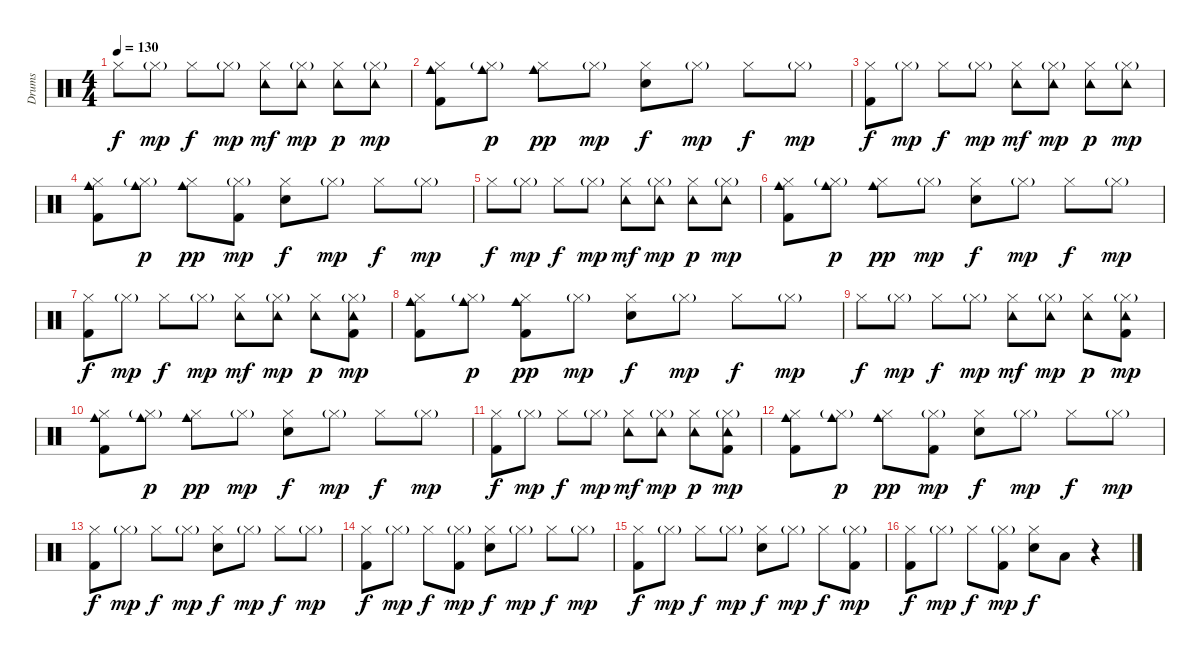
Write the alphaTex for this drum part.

\track ("Drums" "Drums") {instrument percussion}
\staff {score}
\articulation defaults
\ts (4 4)
\tempo 130
\clef neutral
\ks c "Hi-Hat (closed)".8{dy f} "Hi-Hat (closed)"{g}.8{dy mp} "Hi-Hat (closed)".8{dy f} "Hi-Hat (closed)"{g}.8{dy mp}
("Tambourine (hit)" "Hi-Hat (closed)").8{dy mf} ("Tambourine (hit)" "Hi-Hat (closed)"{g}).8{dy mp} ("Tambourine (hit)" "Hi-Hat (closed)").8{dy p} ("Tambourine (hit)" "Hi-Hat (closed)"{g}).8{dy mp} |
("Hi-Hat (closed)" "Cowbell medium (hit)" "Kick (hit) 2").8 ("Hi-Hat (closed)"{g} "Cowbell medium (hit)").8{dy p} ("Hi-Hat (closed)" "Cowbell medium (hit)").8{dy pp} "Hi-Hat (closed)"{g}.8{dy mp} ("Hi-Hat (closed)" "Snare (hit) 2").8{dy f} "Hi-Hat (closed)"{g}.8{dy mp} "Hi-Hat (closed)".8{dy f} "Hi-Hat (closed)"{g}.8{dy mp} |
("Hi-Hat (closed)" "Kick (hit) 2").8{dy f} "Hi-Hat (closed)"{g}.8{dy mp} "Hi-Hat (closed)".8{dy f} "Hi-Hat (closed)"{g}.8{dy mp} ("Tambourine (hit)" "Hi-Hat (closed)").8{dy mf} ("Tambourine (hit)" "Hi-Hat (closed)"{g}).8{dy mp} ("Tambourine (hit)" "Hi-Hat (closed)").8{dy p} ("Tambourine (hit)" "Hi-Hat (closed)"{g}).8{dy mp} |
("Hi-Hat (closed)" "Cowbell medium (hit)" "Kick (hit) 2").8 ("Hi-Hat (closed)"{g} "Cowbell medium (hit)").8{dy p} ("Hi-Hat (closed)" "Cowbell medium (hit)").8{dy pp} ("Hi-Hat (closed)"{g} "Kick (hit) 2").8{dy mp} ("Hi-Hat (closed)" "Snare (hit) 2").8{dy f} "Hi-Hat (closed)"{g}.8{dy mp} "Hi-Hat (closed)".8{dy f} "Hi-Hat (closed)"{g}.8{dy mp} |
"Hi-Hat (closed)".8{dy f} "Hi-Hat (closed)"{g}.8{dy mp} "Hi-Hat (closed)".8{dy f} "Hi-Hat (closed)"{g}.8{dy mp} ("Tambourine (hit)" "Hi-Hat (closed)").8{dy mf} ("Tambourine (hit)" "Hi-Hat (closed)"{g}).8{dy mp} ("Tambourine (hit)" "Hi-Hat (closed)").8{dy p} ("Tambourine (hit)" "Hi-Hat (closed)"{g}).8{dy mp} |
("Hi-Hat (closed)" "Cowbell medium (hit)" "Kick (hit) 2").8 ("Hi-Hat (closed)"{g} "Cowbell medium (hit)").8{dy p} ("Hi-Hat (closed)" "Cowbell medium (hit)").8{dy pp} "Hi-Hat (closed)"{g}.8{dy mp} ("Hi-Hat (closed)" "Snare (hit) 2").8{dy f} "Hi-Hat (closed)"{g}.8{dy mp} "Hi-Hat (closed)".8{dy f} "Hi-Hat (closed)"{g}.8{dy mp} |
("Hi-Hat (closed)" "Kick (hit) 2").8{dy f} "Hi-Hat (closed)"{g}.8{dy mp} "Hi-Hat (closed)".8{dy f} "Hi-Hat (closed)"{g}.8{dy mp} ("Tambourine (hit)" "Hi-Hat (closed)").8{dy mf} ("Tambourine (hit)" "Hi-Hat (closed)"{g}).8{dy mp} ("Tambourine (hit)" "Hi-Hat (closed)").8{dy p} ("Tambourine (hit)" "Hi-Hat (closed)"{g} "Kick (hit) 2").8{dy mp} |
("Hi-Hat (closed)" "Cowbell medium (hit)" "Kick (hit) 2").8 ("Hi-Hat (closed)"{g} "Cowbell medium (hit)").8{dy p} ("Hi-Hat (closed)" "Cowbell medium (hit)" "Kick (hit) 2").8{dy pp} "Hi-Hat (closed)"{g}.8{dy mp} ("Hi-Hat (closed)" "Snare (hit) 2").8{dy f} "Hi-Hat (closed)"{g}.8{dy mp} "Hi-Hat (closed)".8{dy f} "Hi-Hat (closed)"{g}.8{dy mp} |
"Hi-Hat (closed)".8{dy f} "Hi-Hat (closed)"{g}.8{dy mp} "Hi-Hat (closed)".8{dy f} "Hi-Hat (closed)"{g}.8{dy mp} ("Tambourine (hit)" "Hi-Hat (closed)").8{dy mf} ("Tambourine (hit)" "Hi-Hat (closed)"{g}).8{dy mp} ("Tambourine (hit)" "Hi-Hat (closed)").8{dy p} ("Tambourine (hit)" "Hi-Hat (closed)"{g} "Kick (hit) 2").8{dy mp} |
("Hi-Hat (closed)" "Cowbell medium (hit)" "Kick (hit) 2").8 ("Hi-Hat (closed)"{g} "Cowbell medium (hit)").8{dy p} ("Hi-Hat (closed)" "Cowbell medium (hit)").8{dy pp} "Hi-Hat (closed)"{g}.8{dy mp} ("Hi-Hat (closed)" "Snare (hit) 2").8{dy f} "Hi-Hat (closed)"{g}.8{dy mp} "Hi-Hat (closed)".8{dy f} "Hi-Hat (closed)"{g}.8{dy mp} |
("Hi-Hat (closed)" "Kick (hit) 2").8{dy f} "Hi-Hat (closed)"{g}.8{dy mp} "Hi-Hat (closed)".8{dy f} "Hi-Hat (closed)"{g}.8{dy mp} ("Tambourine (hit)" "Hi-Hat (closed)").8{dy mf} ("Tambourine (hit)" "Hi-Hat (closed)"{g}).8{dy mp} ("Tambourine (hit)" "Hi-Hat (closed)").8{dy p} ("Tambourine (hit)" "Hi-Hat (closed)"{g} "Kick (hit) 2").8{dy mp} |
("Hi-Hat (closed)" "Cowbell medium (hit)" "Kick (hit) 2").8 ("Hi-Hat (closed)"{g} "Cowbell medium (hit)").8{dy p} ("Hi-Hat (closed)" "Cowbell medium (hit)").8{dy pp} ("Hi-Hat (closed)"{g} "Kick (hit) 2").8{dy mp} ("Hi-Hat (closed)" "Snare (hit) 2").8{dy f} "Hi-Hat (closed)"{g}.8{dy mp} "Hi-Hat (closed)".8{dy f} "Hi-Hat (closed)"{g}.8{dy mp} |
("Hi-Hat (closed)" "Kick (hit) 2").8{dy f} "Hi-Hat (closed)"{g}.8{dy mp} "Hi-Hat (closed)".8{dy f} "Hi-Hat (closed)"{g}.8{dy mp} ("Hi-Hat (closed)" "Snare (hit) 2").8{dy f} "Hi-Hat (closed)"{g}.8{dy mp} "Hi-Hat (closed)".8{dy f} "Hi-Hat (closed)"{g}.8{dy mp} |
("Hi-Hat (closed)" "Kick (hit) 2").8{dy f} "Hi-Hat (closed)"{g}.8{dy mp} "Hi-Hat (closed)".8{dy f} ("Hi-Hat (closed)"{g} "Kick (hit) 2").8{dy mp} ("Hi-Hat (closed)" "Snare (hit) 2").8{dy f} "Hi-Hat (closed)"{g}.8{dy mp} "Hi-Hat (closed)".8{dy f} "Hi-Hat (closed)"{g}.8{dy mp} |
("Hi-Hat (closed)" "Kick (hit) 2").8{dy f} "Hi-Hat (closed)"{g}.8{dy mp} "Hi-Hat (closed)".8{dy f} "Hi-Hat (closed)"{g}.8{dy mp} ("Hi-Hat (closed)" "Snare (hit) 2").8{dy f} "Hi-Hat (closed)"{g}.8{dy mp} "Hi-Hat (closed)".8{dy f} ("Hi-Hat (closed)"{g} "Kick (hit) 2").8{dy mp} |
("Hi-Hat (closed)" "Kick (hit) 2").8{dy f} "Hi-Hat (closed)"{g}.8{dy mp} "Hi-Hat (closed)".8{dy f} ("Hi-Hat (closed)"{g} "Kick (hit) 2").8{dy mp} ("Hi-Hat (closed)" "Snare (hit) 2").8{dy f} "Low Tom (hit)".8 r.4
